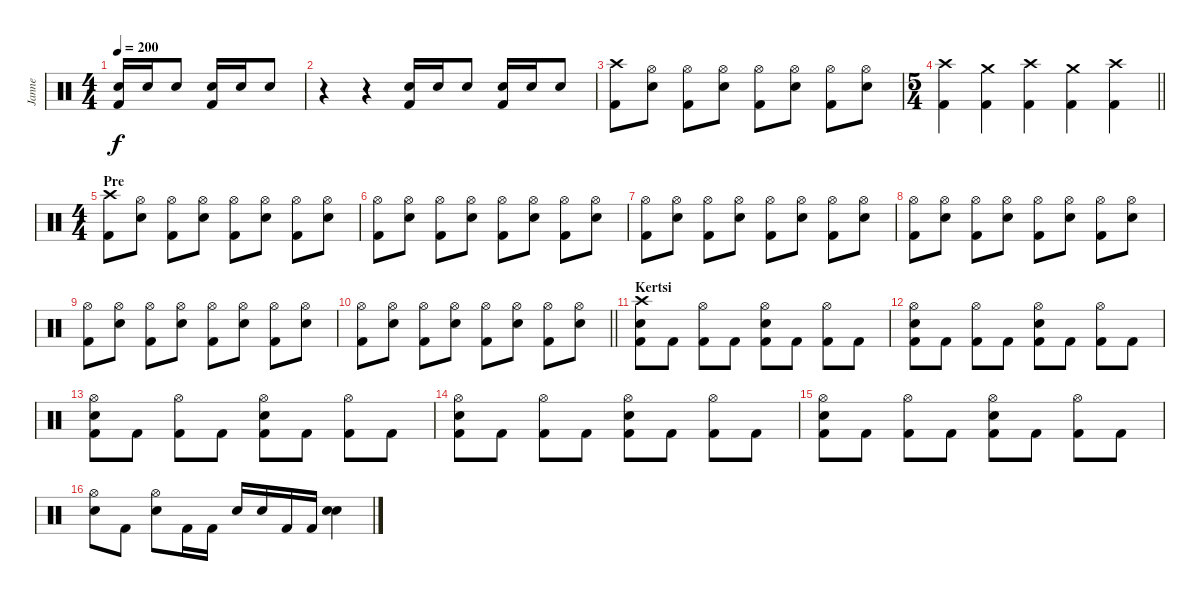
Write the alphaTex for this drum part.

\track ("Janne" "Janne") {instrument percussion}
\staff {score}
\articulation defaults
\ts (4 4)
\tempo 200
\clef neutral
\ks c
("Electric Snare (hit)" "Kick (hit) 2").16{dy f} "Electric Snare (hit)".16 "Electric Snare (hit)".8 ("Electric Snare (hit)" "Kick (hit) 2").16 "Electric Snare (hit)".16 "Electric Snare (hit)".8 |
r.4 r.4 ("Electric Snare (hit)" "Kick (hit) 2").16 "Electric Snare (hit)".16 "Electric Snare (hit)".8 ("Electric Snare (hit)" "Kick (hit) 2").16 "Electric Snare (hit)".16 "Electric Snare (hit)".8 |
("Crash high (hit)" "Kick (hit) 2").8 ("Hi-Hat (open)" "Electric Snare (hit)").8 ("Hi-Hat (open)" "Kick (hit) 2").8 ("Hi-Hat (open)" "Electric Snare (hit)").8 ("Hi-Hat (open)" "Kick (hit) 2").8 ("Hi-Hat (open)" "Electric Snare (hit)").8 ("Hi-Hat (open)" "Kick (hit) 2").8 ("Hi-Hat (open)" "Electric Snare (hit)").8 |
\ts (5 4)
\barLineRight lightlight
("Crash high (hit)" "Kick (hit) 2").4 ("Crash medium (hit)" "Kick (hit) 2").4 ("Crash high (hit)" "Kick (hit) 2").4 ("Crash medium (hit)" "Kick (hit) 2").4 ("Crash high (hit)" "Kick (hit) 2").4 |
\ts (4 4)
\section ("" "Pre")
("Crash high (hit)" "Kick (hit) 2").8 ("Hi-Hat (open)" "Electric Snare (hit)").8 ("Hi-Hat (open)" "Kick (hit) 2").8 ("Hi-Hat (open)" "Electric Snare (hit)").8 ("Hi-Hat (open)" "Kick (hit) 2").8 ("Hi-Hat (open)" "Electric Snare (hit)").8 ("Hi-Hat (open)" "Kick (hit) 2").8 ("Hi-Hat (open)" "Electric Snare (hit)").8 |
("Hi-Hat (open)" "Kick (hit) 2").8 ("Hi-Hat (open)" "Electric Snare (hit)").8 ("Hi-Hat (open)" "Kick (hit) 2").8 ("Hi-Hat (open)" "Electric Snare (hit)").8 ("Hi-Hat (open)" "Kick (hit) 2").8 ("Hi-Hat (open)" "Electric Snare (hit)").8 ("Hi-Hat (open)" "Kick (hit) 2").8 ("Hi-Hat (open)" "Electric Snare (hit)").8 |
("Hi-Hat (open)" "Kick (hit) 2").8 ("Hi-Hat (open)" "Electric Snare (hit)").8 ("Hi-Hat (open)" "Kick (hit) 2").8 ("Hi-Hat (open)" "Electric Snare (hit)").8 ("Hi-Hat (open)" "Kick (hit) 2").8 ("Hi-Hat (open)" "Electric Snare (hit)").8 ("Hi-Hat (open)" "Kick (hit) 2").8 ("Hi-Hat (open)" "Electric Snare (hit)").8 |
("Hi-Hat (open)" "Kick (hit) 2").8 ("Hi-Hat (open)" "Electric Snare (hit)").8 ("Hi-Hat (open)" "Kick (hit) 2").8 ("Hi-Hat (open)" "Electric Snare (hit)").8 ("Hi-Hat (open)" "Kick (hit) 2").8 ("Hi-Hat (open)" "Electric Snare (hit)").8 ("Hi-Hat (open)" "Kick (hit) 2").8 ("Hi-Hat (open)" "Electric Snare (hit)").8 |
("Hi-Hat (open)" "Kick (hit) 2").8 ("Hi-Hat (open)" "Electric Snare (hit)").8 ("Hi-Hat (open)" "Kick (hit) 2").8 ("Hi-Hat (open)" "Electric Snare (hit)").8 ("Hi-Hat (open)" "Kick (hit) 2").8 ("Hi-Hat (open)" "Electric Snare (hit)").8 ("Hi-Hat (open)" "Kick (hit) 2").8 ("Hi-Hat (open)" "Electric Snare (hit)").8 |
\barLineRight lightlight
("Hi-Hat (open)" "Kick (hit) 2").8 ("Hi-Hat (open)" "Electric Snare (hit)").8 ("Hi-Hat (open)" "Kick (hit) 2").8 ("Hi-Hat (open)" "Electric Snare (hit)").8 ("Hi-Hat (open)" "Kick (hit) 2").8 ("Hi-Hat (open)" "Electric Snare (hit)").8 ("Hi-Hat (open)" "Kick (hit) 2").8 ("Hi-Hat (open)" "Electric Snare (hit)").8 |
\section ("" "Kertsi")
("Crash high (hit)" "Electric Snare (hit)" "Kick (hit) 2").8 "Kick (hit) 2".8 ("Hi-Hat (open)" "Kick (hit) 2").8 "Kick (hit) 2".8 ("Hi-Hat (open)" "Electric Snare (hit)" "Kick (hit) 2").8 "Kick (hit) 2".8 ("Hi-Hat (open)" "Kick (hit) 2").8 "Kick (hit) 2".8 |
("Hi-Hat (open)" "Electric Snare (hit)" "Kick (hit) 2").8 "Kick (hit) 2".8 ("Hi-Hat (open)" "Kick (hit) 2").8 "Kick (hit) 2".8 ("Hi-Hat (open)" "Electric Snare (hit)" "Kick (hit) 2").8 "Kick (hit) 2".8 ("Hi-Hat (open)" "Kick (hit) 2").8 "Kick (hit) 2".8 |
("Hi-Hat (open)" "Electric Snare (hit)" "Kick (hit) 2").8 "Kick (hit) 2".8 ("Hi-Hat (open)" "Kick (hit) 2").8 "Kick (hit) 2".8 ("Hi-Hat (open)" "Electric Snare (hit)" "Kick (hit) 2").8 "Kick (hit) 2".8 ("Hi-Hat (open)" "Kick (hit) 2").8 "Kick (hit) 2".8 |
("Hi-Hat (open)" "Electric Snare (hit)" "Kick (hit) 2").8 "Kick (hit) 2".8 ("Hi-Hat (open)" "Kick (hit) 2").8 "Kick (hit) 2".8 ("Hi-Hat (open)" "Electric Snare (hit)" "Kick (hit) 2").8 "Kick (hit) 2".8 ("Hi-Hat (open)" "Kick (hit) 2").8 "Kick (hit) 2".8 |
("Hi-Hat (open)" "Electric Snare (hit)" "Kick (hit) 2").8 "Kick (hit) 2".8 ("Hi-Hat (open)" "Kick (hit) 2").8 "Kick (hit) 2".8 ("Hi-Hat (open)" "Electric Snare (hit)" "Kick (hit) 2").8 "Kick (hit) 2".8 ("Hi-Hat (open)" "Kick (hit) 2").8 "Kick (hit) 2".8 |
("Hi-Hat (open)" "Electric Snare (hit)").8 "Kick (hit) 2".8 ("Hi-Hat (open)" "Electric Snare (hit)").8 "Kick (hit) 2".16 "Kick (hit) 2".16 "Electric Snare (hit)".16 "Electric Snare (hit)".16 "Kick (hit) 2".16 "Kick (hit) 2".16 ("Electric Snare (hit)" "Electric Snare (hit)").4
